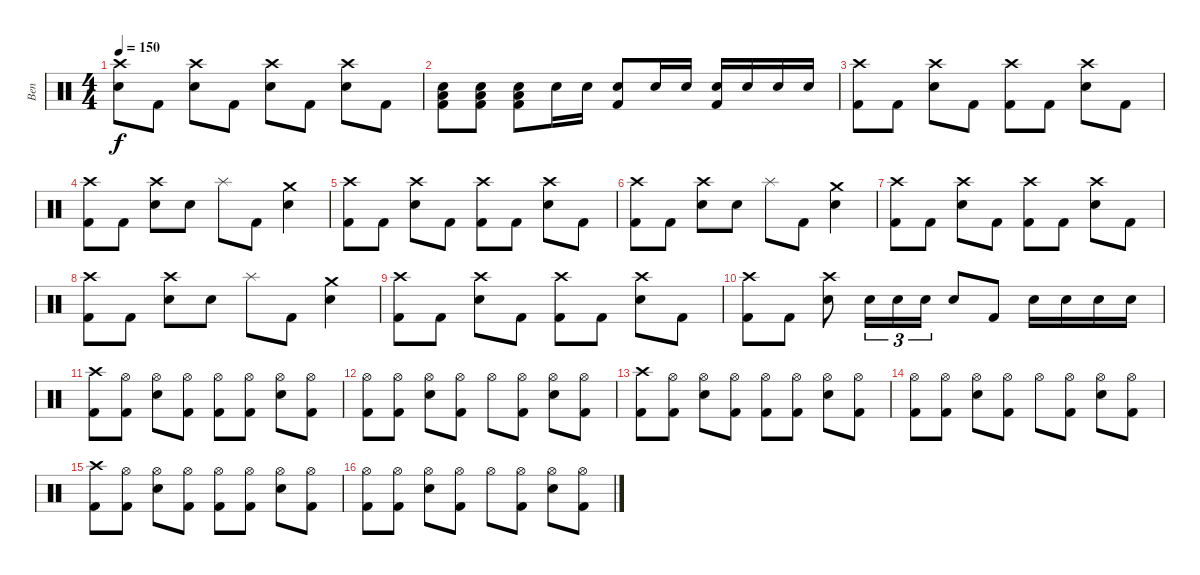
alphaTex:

\track ("Ben" "Ben") {instrument percussion}
\staff {score}
\articulation defaults
\ts (4 4)
\tempo 150
\clef neutral
\ks c
("Crash high (hit)" "Snare (hit) 2").8{dy f} "Kick (hit) 2".8 ("Crash high (hit)" "Snare (hit) 2").8 "Kick (hit) 2".8 ("Crash high (hit)" "Snare (hit) 2").8 "Kick (hit) 2".8 ("Crash high (hit)" "Snare (hit) 2").8 "Kick (hit) 2".8 |
("Kick (hit) 2" "Low Floor Tom (hit)" "Snare (hit) 2").8 ("Kick (hit) 2" "Low Floor Tom (hit)" "Snare (hit) 2").8 ("Kick (hit) 2" "Low Floor Tom (hit)" "Snare (hit) 2").8 "Snare (hit) 2".16 "Snare (hit) 2".16 ("Kick (hit) 2" "Snare (hit) 2").8 "Snare (hit) 2".16 "Snare (hit) 2".16 ("Kick (hit) 2" "Snare (hit) 2").16 "Snare (hit) 2".16 "Snare (hit) 2".16 "Snare (hit) 2".16 |
("Crash high (hit)" "Kick (hit) 2").8 "Kick (hit) 2".8 ("Crash high (hit)" "Snare (hit) 2").8 "Kick (hit) 2".8 ("Crash high (hit)" "Kick (hit) 2").8 "Kick (hit) 2".8 ("Crash high (hit)" "Snare (hit) 2").8 "Kick (hit) 2".8 |
("Crash high (hit)" "Kick (hit) 2").8 "Kick (hit) 2".8 ("Crash high (hit)" "Snare (hit) 2").8 "Snare (hit) 2".8 "Splash (hit)".8 "Kick (hit) 2".8 ("Crash medium (hit)" "Snare (hit) 2").4 |
("Crash high (hit)" "Kick (hit) 2").8 "Kick (hit) 2".8 ("Crash high (hit)" "Snare (hit) 2").8 "Kick (hit) 2".8 ("Crash high (hit)" "Kick (hit) 2").8 "Kick (hit) 2".8 ("Crash high (hit)" "Snare (hit) 2").8 "Kick (hit) 2".8 |
("Crash high (hit)" "Kick (hit) 2").8 "Kick (hit) 2".8 ("Crash high (hit)" "Snare (hit) 2").8 "Snare (hit) 2".8 "Splash (hit)".8 "Kick (hit) 2".8 ("Crash medium (hit)" "Snare (hit) 2").4 |
("Crash high (hit)" "Kick (hit) 2").8 "Kick (hit) 2".8 ("Crash high (hit)" "Snare (hit) 2").8 "Kick (hit) 2".8 ("Crash high (hit)" "Kick (hit) 2").8 "Kick (hit) 2".8 ("Crash high (hit)" "Snare (hit) 2").8 "Kick (hit) 2".8 |
("Crash high (hit)" "Kick (hit) 2").8 "Kick (hit) 2".8 ("Crash high (hit)" "Snare (hit) 2").8 "Snare (hit) 2".8 "Splash (hit)".8 "Kick (hit) 2".8 ("Crash medium (hit)" "Snare (hit) 2").4 |
("Crash high (hit)" "Kick (hit) 2").8 "Kick (hit) 2".8 ("Crash high (hit)" "Snare (hit) 2").8 "Kick (hit) 2".8 ("Crash high (hit)" "Kick (hit) 2").8 "Kick (hit) 2".8 ("Crash high (hit)" "Snare (hit) 2").8 "Kick (hit) 2".8 |
("Crash high (hit)" "Kick (hit) 2").8 "Kick (hit) 2".8 ("Crash high (hit)" "Snare (hit) 2").8 "Snare (hit) 2".16{tu (3 2)} "Snare (hit) 2".16{tu (3 2)} "Snare (hit) 2".16{tu (3 2)} "Snare (hit) 2".8 "Kick (hit) 2".8 "Snare (hit) 2".16 "Snare (hit) 2".16 "Snare (hit) 2".16 "Snare (hit) 2".16 |
("Crash high (hit)" "Kick (hit) 2").8 ("Hi-Hat (open)" "Kick (hit) 2").8 ("Hi-Hat (open)" "Snare (hit) 2").8 ("Hi-Hat (open)" "Kick (hit) 2").8 ("Hi-Hat (open)" "Kick (hit) 2").8 ("Hi-Hat (open)" "Kick (hit) 2").8 ("Hi-Hat (open)" "Snare (hit) 2").8 ("Hi-Hat (open)" "Kick (hit) 2").8 |
("Hi-Hat (open)" "Kick (hit) 2").8 ("Hi-Hat (open)" "Kick (hit) 2").8 ("Hi-Hat (open)" "Snare (hit) 2").8 ("Hi-Hat (open)" "Kick (hit) 2").8 "Hi-Hat (open)".8 ("Hi-Hat (open)" "Kick (hit) 2").8 ("Hi-Hat (open)" "Snare (hit) 2").8 ("Hi-Hat (open)" "Kick (hit) 2").8 |
("Crash high (hit)" "Kick (hit) 2").8 ("Hi-Hat (open)" "Kick (hit) 2").8 ("Hi-Hat (open)" "Snare (hit) 2").8 ("Hi-Hat (open)" "Kick (hit) 2").8 ("Hi-Hat (open)" "Kick (hit) 2").8 ("Hi-Hat (open)" "Kick (hit) 2").8 ("Hi-Hat (open)" "Snare (hit) 2").8 ("Hi-Hat (open)" "Kick (hit) 2").8 |
("Hi-Hat (open)" "Kick (hit) 2").8 ("Hi-Hat (open)" "Kick (hit) 2").8 ("Hi-Hat (open)" "Snare (hit) 2").8 ("Hi-Hat (open)" "Kick (hit) 2").8 "Hi-Hat (open)".8 ("Hi-Hat (open)" "Kick (hit) 2").8 ("Hi-Hat (open)" "Snare (hit) 2").8 ("Hi-Hat (open)" "Kick (hit) 2").8 |
("Crash high (hit)" "Kick (hit) 2").8 ("Hi-Hat (open)" "Kick (hit) 2").8 ("Hi-Hat (open)" "Snare (hit) 2").8 ("Hi-Hat (open)" "Kick (hit) 2").8 ("Hi-Hat (open)" "Kick (hit) 2").8 ("Hi-Hat (open)" "Kick (hit) 2").8 ("Hi-Hat (open)" "Snare (hit) 2").8 ("Hi-Hat (open)" "Kick (hit) 2").8 |
("Hi-Hat (open)" "Kick (hit) 2").8 ("Hi-Hat (open)" "Kick (hit) 2").8 ("Hi-Hat (open)" "Snare (hit) 2").8 ("Hi-Hat (open)" "Kick (hit) 2").8 "Hi-Hat (open)".8 ("Hi-Hat (open)" "Kick (hit) 2").8 ("Hi-Hat (open)" "Snare (hit) 2").8 ("Hi-Hat (open)" "Kick (hit) 2").8
